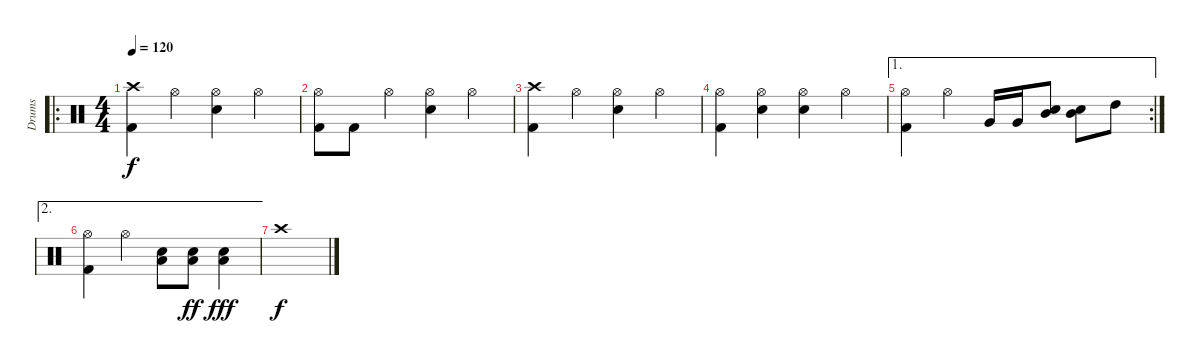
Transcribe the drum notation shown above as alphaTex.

\track ("Drums" "Drums") {instrument percussion}
\staff {score}
\articulation defaults
\ro
\ts (4 4)
\tempo 120
\clef neutral
\ks c
("Crash high (hit)" "Kick (hit) 2").4{dy f} "Hi-Hat (open)".4 ("Hi-Hat (open)" "Snare (hit) 2").4 "Hi-Hat (open)".4 |
("Hi-Hat (open)" "Kick (hit) 2").8 "Kick (hit) 2".8 "Hi-Hat (open)".4 ("Hi-Hat (open)" "Snare (hit) 2").4 "Hi-Hat (open)".4 |
("Crash high (hit)" "Kick (hit) 2").4 "Hi-Hat (open)".4 ("Hi-Hat (open)" "Snare (hit) 2").4 "Hi-Hat (open)".4 |
("Hi-Hat (open)" "Kick (hit) 2").4 ("Hi-Hat (open)" "Snare (hit) 2").4 ("Hi-Hat (open)" "Snare (hit) 2").4 "Hi-Hat (open)".4 |
\ae 1
\rc 2
("Hi-Hat (open)" "Kick (hit) 2").4 "Hi-Hat (open)".4 "Very Low Tom (hit)".16 "Very Low Tom (hit)".16 ("Snare (hit) 2" "Mid Tom (hit)").8 ("Snare (hit) 2" "Mid Tom (hit)").8 "High Tom (hit)".8 |
\ae 2
("Hi-Hat (open)" "Kick (hit) 2").4 "Hi-Hat (open)".4 ("Snare (hit) 2" "Low Floor Tom (hit)").8 ("Snare (hit) 2" "Low Floor Tom (hit)").8{dy ff} ("Snare (hit) 2" "Low Floor Tom (hit)").4{dy fff} |
"Crash high (hit)".1{dy f}
